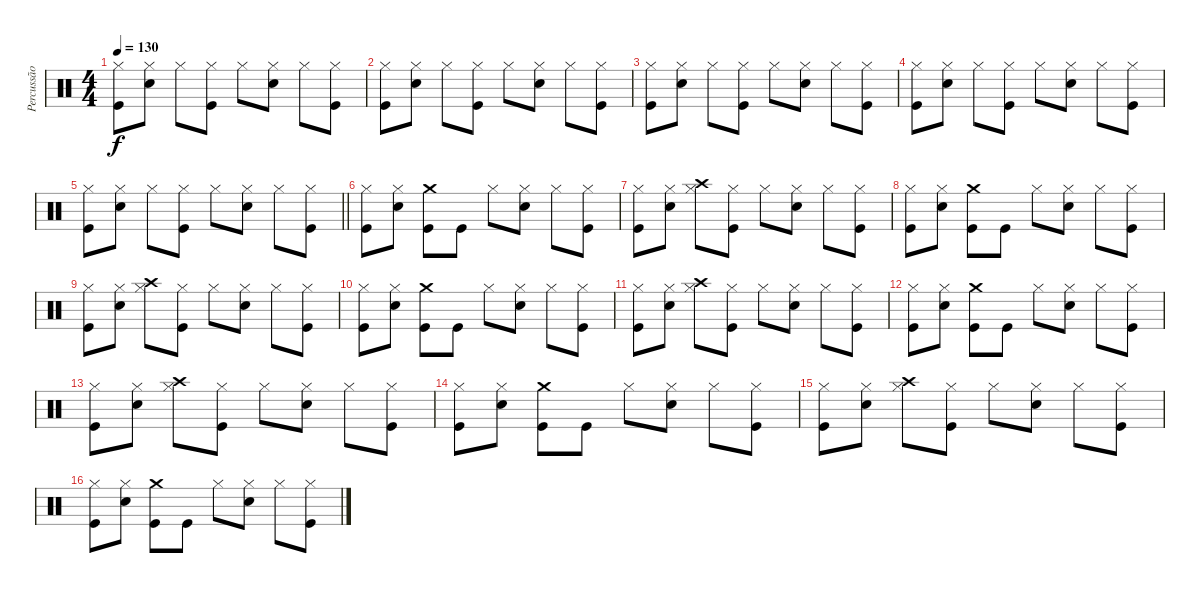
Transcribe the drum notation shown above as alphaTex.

\track ("Percussão" "Percussão") {instrument percussion}
\staff {score}
\articulation defaults
\ts (4 4)
\tempo 130
\clef neutral
\ks c
("Hi-Hat (closed)" "Kick (hit)").8{dy f} ("Hi-Hat (closed)" "Snare (hit) 2").8 "Hi-Hat (closed)".8 ("Hi-Hat (closed)" "Kick (hit)").8 "Hi-Hat (closed)".8 ("Hi-Hat (closed)" "Snare (hit) 2").8 "Hi-Hat (closed)".8 ("Hi-Hat (closed)" "Kick (hit)").8 |
("Hi-Hat (closed)" "Kick (hit)").8 ("Hi-Hat (closed)" "Snare (hit) 2").8 "Hi-Hat (closed)".8 ("Hi-Hat (closed)" "Kick (hit)").8 "Hi-Hat (closed)".8 ("Hi-Hat (closed)" "Snare (hit) 2").8 "Hi-Hat (closed)".8 ("Hi-Hat (closed)" "Kick (hit)").8 |
("Hi-Hat (closed)" "Kick (hit)").8 ("Hi-Hat (closed)" "Snare (hit) 2").8 "Hi-Hat (closed)".8 ("Hi-Hat (closed)" "Kick (hit)").8 "Hi-Hat (closed)".8 ("Hi-Hat (closed)" "Snare (hit) 2").8 "Hi-Hat (closed)".8 ("Hi-Hat (closed)" "Kick (hit)").8 |
("Hi-Hat (closed)" "Kick (hit)").8 ("Hi-Hat (closed)" "Snare (hit) 2").8 "Hi-Hat (closed)".8 ("Hi-Hat (closed)" "Kick (hit)").8 "Hi-Hat (closed)".8 ("Hi-Hat (closed)" "Snare (hit) 2").8 "Hi-Hat (closed)".8 ("Hi-Hat (closed)" "Kick (hit)").8 |
\barLineRight lightlight
("Hi-Hat (closed)" "Kick (hit)").8 ("Hi-Hat (closed)" "Snare (hit) 2").8 "Hi-Hat (closed)".8 ("Hi-Hat (closed)" "Kick (hit)").8 "Hi-Hat (closed)".8 ("Hi-Hat (closed)" "Snare (hit) 2").8 "Hi-Hat (closed)".8 ("Hi-Hat (closed)" "Kick (hit)").8 |
("Hi-Hat (closed)" "Kick (hit)").8 ("Hi-Hat (closed)" "Snare (hit) 2").8 ("Kick (hit)" "Crash medium (hit)").8 "Kick (hit)".8 "Hi-Hat (closed)".8 ("Hi-Hat (closed)" "Snare (hit) 2").8 "Hi-Hat (closed)".8 ("Hi-Hat (closed)" "Kick (hit)").8 |
("Hi-Hat (closed)" "Kick (hit)").8 ("Hi-Hat (closed)" "Snare (hit) 2").8 ("Hi-Hat (closed)" "Crash high (hit)").8 ("Hi-Hat (closed)" "Kick (hit)").8 "Hi-Hat (closed)".8 ("Hi-Hat (closed)" "Snare (hit) 2").8 "Hi-Hat (closed)".8 ("Hi-Hat (closed)" "Kick (hit)").8 |
("Hi-Hat (closed)" "Kick (hit)").8 ("Hi-Hat (closed)" "Snare (hit) 2").8 ("Kick (hit)" "Crash medium (hit)").8 "Kick (hit)".8 "Hi-Hat (closed)".8 ("Hi-Hat (closed)" "Snare (hit) 2").8 "Hi-Hat (closed)".8 ("Hi-Hat (closed)" "Kick (hit)").8 |
("Hi-Hat (closed)" "Kick (hit)").8 ("Hi-Hat (closed)" "Snare (hit) 2").8 ("Hi-Hat (closed)" "Crash high (hit)").8 ("Hi-Hat (closed)" "Kick (hit)").8 "Hi-Hat (closed)".8 ("Hi-Hat (closed)" "Snare (hit) 2").8 "Hi-Hat (closed)".8 ("Hi-Hat (closed)" "Kick (hit)").8 |
("Hi-Hat (closed)" "Kick (hit)").8 ("Hi-Hat (closed)" "Snare (hit) 2").8 ("Kick (hit)" "Crash medium (hit)").8 "Kick (hit)".8 "Hi-Hat (closed)".8 ("Hi-Hat (closed)" "Snare (hit) 2").8 "Hi-Hat (closed)".8 ("Hi-Hat (closed)" "Kick (hit)").8 |
("Hi-Hat (closed)" "Kick (hit)").8 ("Hi-Hat (closed)" "Snare (hit) 2").8 ("Hi-Hat (closed)" "Crash high (hit)").8 ("Hi-Hat (closed)" "Kick (hit)").8 "Hi-Hat (closed)".8 ("Hi-Hat (closed)" "Snare (hit) 2").8 "Hi-Hat (closed)".8 ("Hi-Hat (closed)" "Kick (hit)").8 |
("Hi-Hat (closed)" "Kick (hit)").8 ("Hi-Hat (closed)" "Snare (hit) 2").8 ("Kick (hit)" "Crash medium (hit)").8 "Kick (hit)".8 "Hi-Hat (closed)".8 ("Hi-Hat (closed)" "Snare (hit) 2").8 "Hi-Hat (closed)".8 ("Hi-Hat (closed)" "Kick (hit)").8 |
("Hi-Hat (closed)" "Kick (hit)").8 ("Hi-Hat (closed)" "Snare (hit) 2").8 ("Hi-Hat (closed)" "Crash high (hit)").8 ("Hi-Hat (closed)" "Kick (hit)").8 "Hi-Hat (closed)".8 ("Hi-Hat (closed)" "Snare (hit) 2").8 "Hi-Hat (closed)".8 ("Hi-Hat (closed)" "Kick (hit)").8 |
("Hi-Hat (closed)" "Kick (hit)").8 ("Hi-Hat (closed)" "Snare (hit) 2").8 ("Kick (hit)" "Crash medium (hit)").8 "Kick (hit)".8 "Hi-Hat (closed)".8 ("Hi-Hat (closed)" "Snare (hit) 2").8 "Hi-Hat (closed)".8 ("Hi-Hat (closed)" "Kick (hit)").8 |
("Hi-Hat (closed)" "Kick (hit)").8 ("Hi-Hat (closed)" "Snare (hit) 2").8 ("Hi-Hat (closed)" "Crash high (hit)").8 ("Hi-Hat (closed)" "Kick (hit)").8 "Hi-Hat (closed)".8 ("Hi-Hat (closed)" "Snare (hit) 2").8 "Hi-Hat (closed)".8 ("Hi-Hat (closed)" "Kick (hit)").8 |
("Hi-Hat (closed)" "Kick (hit)").8 ("Hi-Hat (closed)" "Snare (hit) 2").8 ("Kick (hit)" "Crash medium (hit)").8 "Kick (hit)".8 "Hi-Hat (closed)".8 ("Hi-Hat (closed)" "Snare (hit) 2").8 "Hi-Hat (closed)".8 ("Hi-Hat (closed)" "Kick (hit)").8
